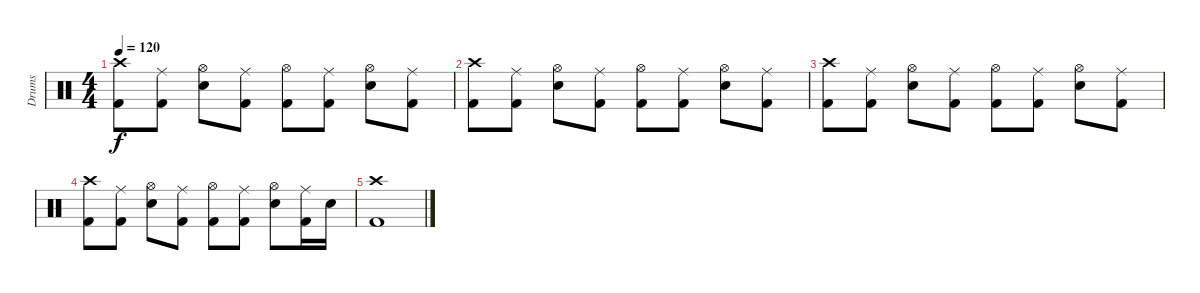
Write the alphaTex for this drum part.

\track ("Drums" "Drums") {instrument percussion}
\staff {score}
\articulation defaults
\ts (4 4)
\tempo 120
\clef neutral
\ks c
("Kick (hit) 2" "Crash high (hit)").8{dy f} ("Kick (hit) 2" "Ride (middle)").8 ("Electric Snare (hit)" "Hi-Hat (open)").8 ("Kick (hit) 2" "Ride (middle)").8 ("Kick (hit) 2" "Hi-Hat (open)").8 ("Kick (hit) 2" "Ride (middle)").8 ("Electric Snare (hit)" "Hi-Hat (open)").8 ("Kick (hit) 2" "Ride (middle)").8 |
("Kick (hit) 2" "Crash high (hit)").8 ("Kick (hit) 2" "Ride (middle)").8 ("Electric Snare (hit)" "Hi-Hat (open)").8 ("Kick (hit) 2" "Ride (middle)").8 ("Kick (hit) 2" "Hi-Hat (open)").8 ("Kick (hit) 2" "Ride (middle)").8 ("Electric Snare (hit)" "Hi-Hat (open)").8 ("Kick (hit) 2" "Ride (middle)").8 |
("Kick (hit) 2" "Crash high (hit)").8 ("Kick (hit) 2" "Ride (middle)").8 ("Electric Snare (hit)" "Hi-Hat (open)").8 ("Kick (hit) 2" "Ride (middle)").8 ("Kick (hit) 2" "Hi-Hat (open)").8 ("Kick (hit) 2" "Ride (middle)").8 ("Electric Snare (hit)" "Hi-Hat (open)").8 ("Kick (hit) 2" "Ride (middle)").8 |
("Kick (hit) 2" "Crash high (hit)").8 ("Kick (hit) 2" "Ride (middle)").8 ("Electric Snare (hit)" "Hi-Hat (open)").8 ("Kick (hit) 2" "Ride (middle)").8 ("Kick (hit) 2" "Hi-Hat (open)").8 ("Kick (hit) 2" "Ride (middle)").8 ("Electric Snare (hit)" "Hi-Hat (open)").8 ("Kick (hit) 2" "Ride (middle)").16 "Electric Snare (hit)".16 |
("Kick (hit) 2" "Crash high (hit)").1
